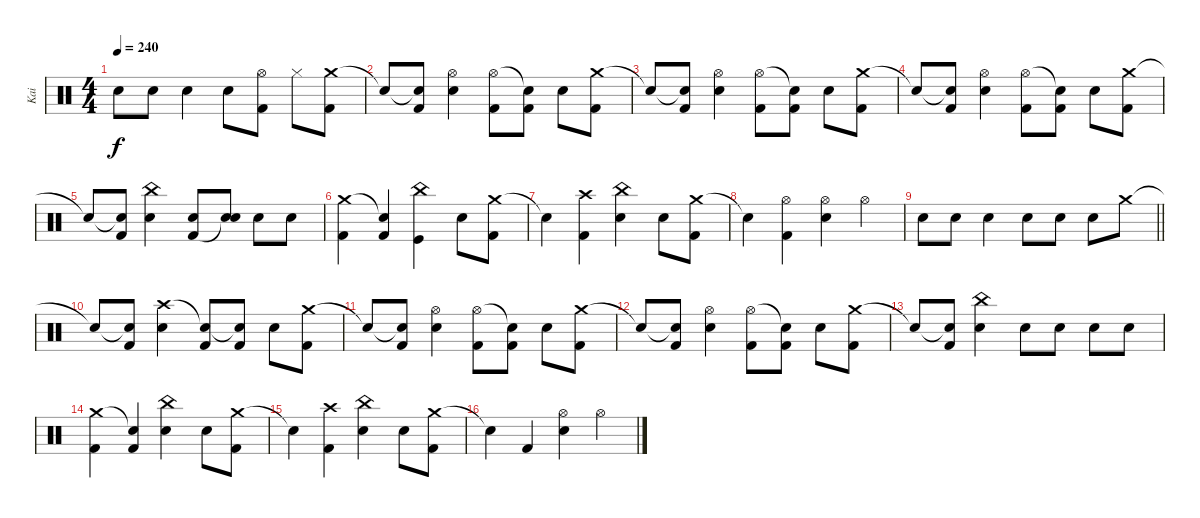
\track ("Kai" "Kai") {instrument percussion}
\staff {score}
\articulation defaults
\ts (4 4)
\tempo 240
\clef neutral
\ks c "Snare (hit) 2".8{dy f} "Snare (hit) 2".8 "Snare (hit) 2".4 "Snare (hit) 2".8
("Hi-Hat (open)" "Kick (hit) 2").8 "Hi-Hat (closed)".8 ("Crash medium (hit)" "Kick (hit) 2").8 |
"Snare (hit)"{t}.8 ("Snare (hit)"{t} "Kick (hit) 2").8 ("Hi-Hat (open)" "Snare (hit) 2").4 ("Hi-Hat (open)" "Kick (hit) 2").8 ("Snare (hit)"{t} "Kick (hit) 2").8 "Snare (hit) 2".8 ("Crash medium (hit)" "Kick (hit) 2").8 |
"Snare (hit)"{t}.8 ("Snare (hit)"{t} "Kick (hit) 2").8 ("Hi-Hat (open)" "Snare (hit) 2").4 ("Hi-Hat (open)" "Kick (hit) 2").8 ("Snare (hit)"{t} "Kick (hit) 2").8 "Snare (hit) 2".8 ("Crash medium (hit)" "Kick (hit) 2").8 |
"Snare (hit)"{t}.8 ("Snare (hit)"{t} "Kick (hit) 2").8 ("Hi-Hat (open)" "Snare (hit) 2").4 ("Hi-Hat (open)" "Kick (hit) 2").8 ("Snare (hit)"{t} "Kick (hit) 2").8 "Snare (hit) 2".8 ("Crash medium (hit)" "Kick (hit) 2").8 |
"Snare (hit)"{t}.8 ("Snare (hit)"{t} "Kick (hit) 2").8 ("China (hit)" "Snare (hit) 2").4 ("Snare (hit) 2" "Kick (hit) 2").8 ("Snare (hit) 2" "Snare (hit)"{t}).8 "Snare (hit) 2".8 "Snare (hit) 2".8 |
("Crash medium (hit)" "Kick (hit) 2").4 ("Snare (hit)"{t} "Kick (hit) 2").4 ("China (hit)" "Kick (hit)").4 "Snare (hit) 2".8 ("Crash medium (hit)" "Kick (hit) 2").8 |
"Snare (hit)"{t}.4 ("Crash high (hit)" "Kick (hit) 2").4 ("China (hit)" "Snare (hit) 2").4 "Snare (hit) 2".8 ("Crash medium (hit)" "Kick (hit) 2").8 |
"Snare (hit)"{t}.4 ("Hi-Hat (open)" "Kick (hit) 2").4 ("Hi-Hat (open)" "Snare (hit) 2").4 "Hi-Hat (open)".4 |
\barLineRight lightlight "Snare (hit) 2".8 "Snare (hit) 2".8 "Snare (hit) 2".4 "Snare (hit) 2".8 "Snare (hit) 2".8 "Snare (hit) 2".8 "Crash medium (hit)".8
|
\section ("" "")
"Snare (hit)"{t}.8 ("Snare (hit)"{t} "Kick (hit) 2").8 ("Crash high (hit)" "Snare (hit) 2").4 ("Snare (hit)"{t} "Kick (hit) 2").8 ("Snare (hit)"{t} "Kick (hit) 2").8 "Snare (hit) 2".8 ("Crash medium (hit)" "Kick (hit) 2").8 |
"Snare (hit)"{t}.8 ("Snare (hit)"{t} "Kick (hit) 2").8 ("Hi-Hat (open)" "Snare (hit) 2").4 ("Hi-Hat (open)" "Kick (hit) 2").8 ("Snare (hit)"{t} "Kick (hit) 2").8 "Snare (hit) 2".8 ("Crash medium (hit)" "Kick (hit) 2").8 |
"Snare (hit)"{t}.8 ("Snare (hit)"{t} "Kick (hit) 2").8 ("Hi-Hat (open)" "Snare (hit) 2").4 ("Hi-Hat (open)" "Kick (hit) 2").8 ("Snare (hit)"{t} "Kick (hit) 2").8 "Snare (hit) 2".8 ("Crash medium (hit)" "Kick (hit) 2").8 |
"Snare (hit)"{t}.8 ("Snare (hit)"{t} "Kick (hit) 2").8 ("China (hit)" "Snare (hit) 2").4 "Snare (hit) 2".8 "Snare (hit) 2".8 "Snare (hit) 2".8 "Snare (hit) 2".8 |
("Crash medium (hit)" "Kick (hit) 2").4 ("Snare (hit)"{t} "Kick (hit) 2").4 ("China (hit)" "Snare (hit) 2").4 "Snare (hit) 2".8 ("Crash medium (hit)" "Kick (hit) 2").8 |
"Snare (hit)"{t}.4 ("Crash high (hit)" "Kick (hit) 2").4 ("China (hit)" "Snare (hit) 2").4 "Snare (hit) 2".8 ("Crash medium (hit)" "Kick (hit) 2").8 |
"Snare (hit)"{t}.4 "Kick (hit) 2".4 ("Hi-Hat (open)" "Snare (hit) 2").4 "Hi-Hat (open)".4
